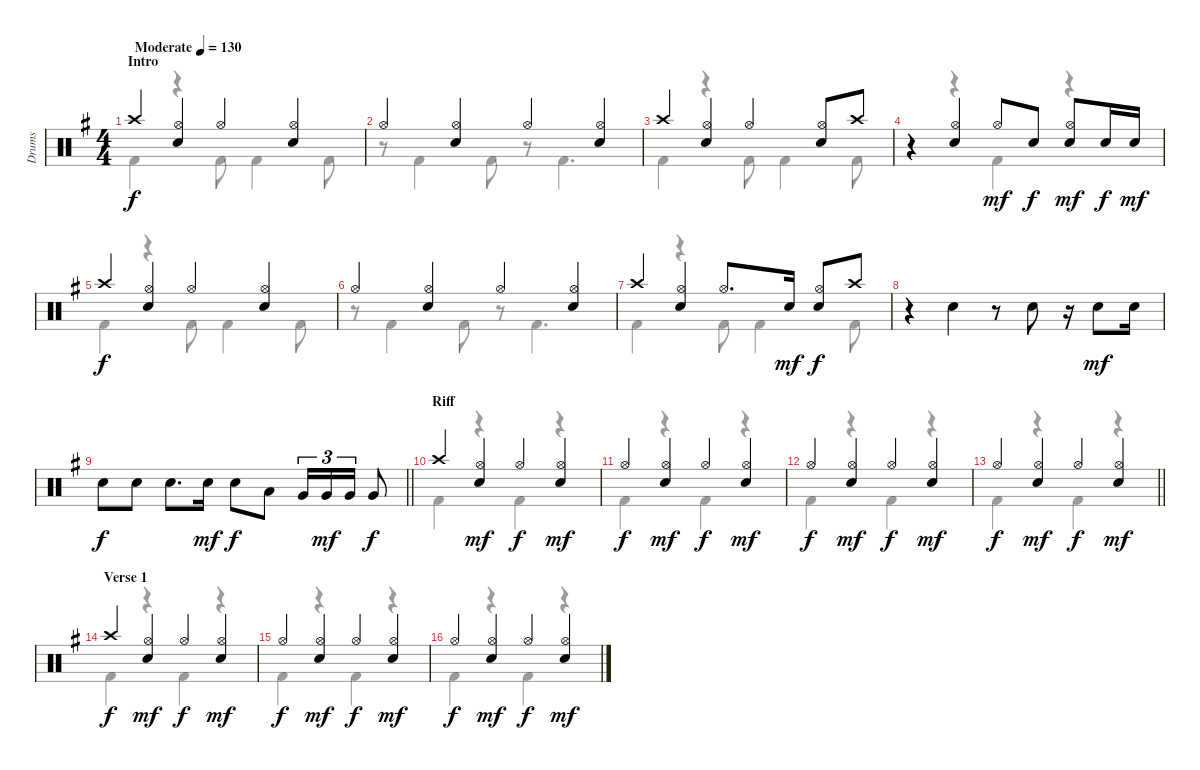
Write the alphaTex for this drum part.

\track ("Drums" "Drums") {instrument percussion}
\staff {score}
\articulation defaults
\voice
\ts (4 4)
\section ("" "Intro")
\tempo (130 "Moderate")
\clef neutral
\ks g "Crash high (hit)".4{dy f}
("Hi-Hat (open)" "Electric Snare (hit)").4 "Hi-Hat (open)".4 ("Hi-Hat (open)" "Electric Snare (hit)").4 |
"Hi-Hat (open)".4 ("Hi-Hat (open)" "Electric Snare (hit)").4 "Hi-Hat (open)".4 ("Hi-Hat (open)" "Electric Snare (hit)").4 |
"Crash high (hit)".4 ("Hi-Hat (open)" "Electric Snare (hit)").4 "Hi-Hat (open)".4 ("Hi-Hat (open)" "Electric Snare (hit)").8 "Crash high (hit)".8 |
r.4 ("Hi-Hat (open)" "Electric Snare (hit)").4 "Hi-Hat (open)".8{dy mf} "Electric Snare (hit)".8{dy f} ("Hi-Hat (open)" "Electric Snare (hit)").8{dy mf} "Electric Snare (hit)".16{dy f} "Electric Snare (hit)".16{dy mf} |
"Crash high (hit)".4{dy f} ("Hi-Hat (open)" "Electric Snare (hit)").4 "Hi-Hat (open)".4 ("Hi-Hat (open)" "Electric Snare (hit)").4 |
"Hi-Hat (open)".4 ("Hi-Hat (open)" "Electric Snare (hit)").4 "Hi-Hat (open)".4 ("Hi-Hat (open)" "Electric Snare (hit)").4 |
"Crash high (hit)".4 ("Hi-Hat (open)" "Electric Snare (hit)").4 "Hi-Hat (open)".8{d} "Electric Snare (hit)".16{dy mf} ("Hi-Hat (open)" "Electric Snare (hit)").8{dy f} "Crash high (hit)".8 |
r.4 "Electric Snare (hit)".4 r.8 "Electric Snare (hit)".8 r.16 "Electric Snare (hit)".8{dy mf} "Electric Snare (hit)".16 |
\barLineRight lightlight "Electric Snare (hit)".8{dy f} "Electric Snare (hit)".8 "Electric Snare (hit)".8{d} "Electric Snare (hit)".16{dy mf} "Electric Snare (hit)".8{dy f} "Low Tom (hit)".8 "Very Low Tom (hit)".16{tu (3 2)} "Very Low Tom (hit)".16{tu (3 2) dy mf} "Very Low Tom (hit)".16{tu (3 2)} "Very Low Tom (hit)".8{dy f}
|
\section ("" "Riff")
"Crash high (hit)".4 ("Hi-Hat (open)" "Electric Snare (hit)").4{dy mf} "Hi-Hat (open)".4{dy f} ("Hi-Hat (open)" "Electric Snare (hit)").4{dy mf} |
"Hi-Hat (open)".4{dy f} ("Hi-Hat (open)" "Electric Snare (hit)").4{dy mf} "Hi-Hat (open)".4{dy f} ("Hi-Hat (open)" "Electric Snare (hit)").4{dy mf} |
"Hi-Hat (open)".4{dy f} ("Hi-Hat (open)" "Electric Snare (hit)").4{dy mf} "Hi-Hat (open)".4{dy f} ("Hi-Hat (open)" "Electric Snare (hit)").4{dy mf} |
\barLineRight lightlight "Hi-Hat (open)".4{dy f}
("Hi-Hat (open)" "Electric Snare (hit)").4{dy mf} "Hi-Hat (open)".4{dy f} ("Hi-Hat (open)" "Electric Snare (hit)").4{dy mf} |
\section ("" "Verse 1")
"Crash high (hit)".4{dy f} ("Hi-Hat (open)" "Electric Snare (hit)").4{dy mf} "Hi-Hat (open)".4{dy f} ("Hi-Hat (open)" "Electric Snare (hit)").4{dy mf} |
"Hi-Hat (open)".4{dy f} ("Hi-Hat (open)" "Electric Snare (hit)").4{dy mf} "Hi-Hat (open)".4{dy f} ("Hi-Hat (open)" "Electric Snare (hit)").4{dy mf} |
"Hi-Hat (open)".4{dy f} ("Hi-Hat (open)" "Electric Snare (hit)").4{dy mf} "Hi-Hat (open)".4{dy f} ("Hi-Hat (open)" "Electric Snare (hit)").4{dy mf}
\voice
\clef neutral
\ottava regular
\simile none
\ks g "Kick (hit) 2".4{dy f}
r.4 "Kick (hit) 2".8 "Kick (hit) 2".4 "Kick (hit) 2".8 |
r.8 "Kick (hit) 2".4 "Kick (hit) 2".8 r.8 "Kick (hit) 2".4{d} |
"Kick (hit) 2".4 r.4 "Kick (hit) 2".8 "Kick (hit) 2".4 "Kick (hit) 2".8 |
r.4 r.4 "Kick (hit) 2".4{dy mf} r.4 |
"Kick (hit) 2".4{dy f} r.4 "Kick (hit) 2".8 "Kick (hit) 2".4 "Kick (hit) 2".8 |
r.8 "Kick (hit) 2".4 "Kick (hit) 2".8 r.8 "Kick (hit) 2".4{d} |
"Kick (hit) 2".4 r.4 "Kick (hit) 2".8 "Kick (hit) 2".4 "Kick (hit) 2".8 |
|
\barLineRight lightlight
|
"Kick (hit) 2".4 r.4 "Kick (hit) 2".4 r.4 |
"Kick (hit) 2".4 r.4 "Kick (hit) 2".4 r.4 |
"Kick (hit) 2".4 r.4 "Kick (hit) 2".4 r.4 |
\barLineRight lightlight "Kick (hit) 2".4
r.4 "Kick (hit) 2".4 r.4 |
"Kick (hit) 2".4 r.4 "Kick (hit) 2".4 r.4 |
"Kick (hit) 2".4 r.4 "Kick (hit) 2".4 r.4 |
"Kick (hit) 2".4 r.4 "Kick (hit) 2".4 r.4
